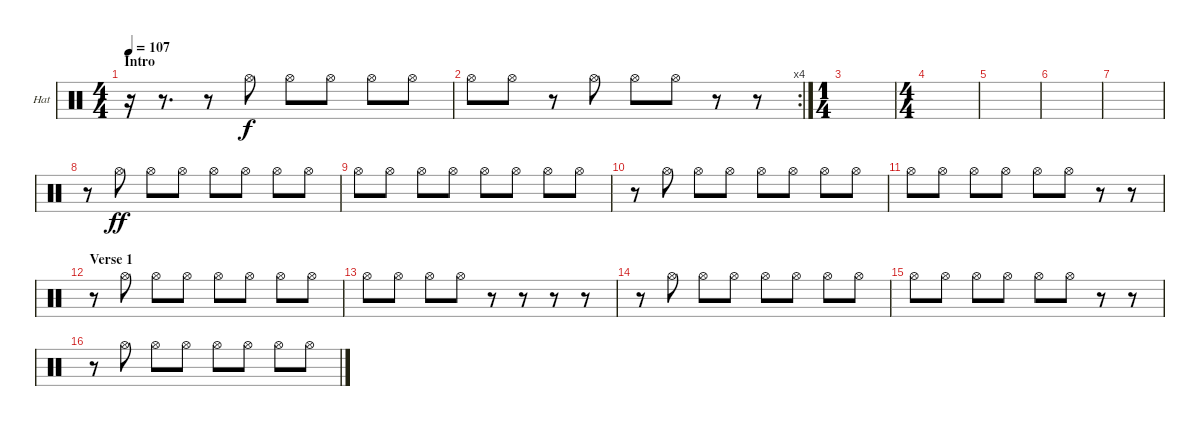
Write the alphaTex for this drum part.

\bracketExtendMode groupsimilarinstruments
\firstSystemTrackNameOrientation horizontal
\otherSystemsTrackNameOrientation horizontal
\track ("Hat" "Hat") {instrument percussion}
\staff {score}
\articulation defaults
\ts (4 4)
\section ("" "Intro")
\tempo 107
\clef neutral
\ks c
r.16{dy f} r.8{d} r.8 "Hi-Hat (open)".8 "Hi-Hat (open)".8 "Hi-Hat (open)".8 "Hi-Hat (open)".8 "Hi-Hat (open)".8 |
\rc 4 "Hi-Hat (open)".8 "Hi-Hat (open)".8
r.8 "Hi-Hat (open)".8 "Hi-Hat (open)".8 "Hi-Hat (open)".8 r.8 r.8 |
\ts (1 4)
|
\ts (4 4)
|
|
|
|
r.8 "Hi-Hat (open)".8{dy ff} "Hi-Hat (open)".8 "Hi-Hat (open)".8 "Hi-Hat (open)".8 "Hi-Hat (open)".8 "Hi-Hat (open)".8 "Hi-Hat (open)".8 |
"Hi-Hat (open)".8 "Hi-Hat (open)".8 "Hi-Hat (open)".8 "Hi-Hat (open)".8 "Hi-Hat (open)".8 "Hi-Hat (open)".8 "Hi-Hat (open)".8 "Hi-Hat (open)".8 |
r.8 "Hi-Hat (open)".8 "Hi-Hat (open)".8 "Hi-Hat (open)".8 "Hi-Hat (open)".8 "Hi-Hat (open)".8 "Hi-Hat (open)".8 "Hi-Hat (open)".8 |
"Hi-Hat (open)".8 "Hi-Hat (open)".8 "Hi-Hat (open)".8 "Hi-Hat (open)".8 "Hi-Hat (open)".8 "Hi-Hat (open)".8 r.8 r.8 |
\section ("" "Verse 1")
r.8 "Hi-Hat (open)".8 "Hi-Hat (open)".8 "Hi-Hat (open)".8 "Hi-Hat (open)".8 "Hi-Hat (open)".8 "Hi-Hat (open)".8 "Hi-Hat (open)".8 |
"Hi-Hat (open)".8 "Hi-Hat (open)".8 "Hi-Hat (open)".8 "Hi-Hat (open)".8 r.8 r.8 r.8 r.8 |
r.8 "Hi-Hat (open)".8 "Hi-Hat (open)".8 "Hi-Hat (open)".8 "Hi-Hat (open)".8 "Hi-Hat (open)".8 "Hi-Hat (open)".8 "Hi-Hat (open)".8 |
"Hi-Hat (open)".8 "Hi-Hat (open)".8 "Hi-Hat (open)".8 "Hi-Hat (open)".8 "Hi-Hat (open)".8 "Hi-Hat (open)".8 r.8 r.8 |
r.8 "Hi-Hat (open)".8 "Hi-Hat (open)".8 "Hi-Hat (open)".8 "Hi-Hat (open)".8 "Hi-Hat (open)".8 "Hi-Hat (open)".8 "Hi-Hat (open)".8
